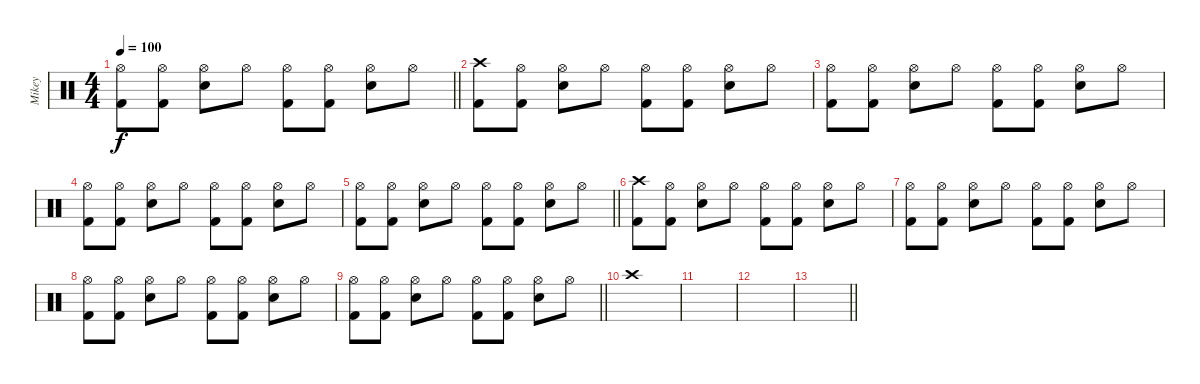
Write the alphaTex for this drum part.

\track ("Mikey" "Mikey") {instrument percussion}
\staff {score}
\articulation defaults
\ts (4 4)
\tempo 100
\clef neutral
\barLineRight lightlight
\ks c
("Hi-Hat (open)" "Kick (hit) 2").8{dy f} ("Hi-Hat (open)" "Kick (hit) 2").8 ("Hi-Hat (open)" "Snare (hit) 2").8 "Hi-Hat (open)".8 ("Hi-Hat (open)" "Kick (hit) 2").8 ("Hi-Hat (open)" "Kick (hit) 2").8 ("Hi-Hat (open)" "Snare (hit) 2").8 "Hi-Hat (open)".8 |
("Crash high (hit)" "Kick (hit) 2").8 ("Hi-Hat (open)" "Kick (hit) 2").8 ("Hi-Hat (open)" "Snare (hit) 2").8 "Hi-Hat (open)".8 ("Hi-Hat (open)" "Kick (hit) 2").8 ("Hi-Hat (open)" "Kick (hit) 2").8 ("Hi-Hat (open)" "Snare (hit) 2").8 "Hi-Hat (open)".8 |
("Hi-Hat (open)" "Kick (hit) 2").8 ("Hi-Hat (open)" "Kick (hit) 2").8 ("Hi-Hat (open)" "Snare (hit) 2").8 "Hi-Hat (open)".8 ("Hi-Hat (open)" "Kick (hit) 2").8 ("Hi-Hat (open)" "Kick (hit) 2").8 ("Hi-Hat (open)" "Snare (hit) 2").8 "Hi-Hat (open)".8 |
("Hi-Hat (open)" "Kick (hit) 2").8 ("Hi-Hat (open)" "Kick (hit) 2").8 ("Hi-Hat (open)" "Snare (hit) 2").8 "Hi-Hat (open)".8 ("Hi-Hat (open)" "Kick (hit) 2").8 ("Hi-Hat (open)" "Kick (hit) 2").8 ("Hi-Hat (open)" "Snare (hit) 2").8 "Hi-Hat (open)".8 |
\barLineRight lightlight
("Hi-Hat (open)" "Kick (hit) 2").8 ("Hi-Hat (open)" "Kick (hit) 2").8 ("Hi-Hat (open)" "Snare (hit) 2").8 "Hi-Hat (open)".8 ("Hi-Hat (open)" "Kick (hit) 2").8 ("Hi-Hat (open)" "Kick (hit) 2").8 ("Hi-Hat (open)" "Snare (hit) 2").8 "Hi-Hat (open)".8 |
("Crash high (hit)" "Kick (hit) 2").8 ("Hi-Hat (open)" "Kick (hit) 2").8 ("Hi-Hat (open)" "Snare (hit) 2").8 "Hi-Hat (open)".8 ("Hi-Hat (open)" "Kick (hit) 2").8 ("Hi-Hat (open)" "Kick (hit) 2").8 ("Hi-Hat (open)" "Snare (hit) 2").8 "Hi-Hat (open)".8 |
("Hi-Hat (open)" "Kick (hit) 2").8 ("Hi-Hat (open)" "Kick (hit) 2").8 ("Hi-Hat (open)" "Snare (hit) 2").8 "Hi-Hat (open)".8 ("Hi-Hat (open)" "Kick (hit) 2").8 ("Hi-Hat (open)" "Kick (hit) 2").8 ("Hi-Hat (open)" "Snare (hit) 2").8 "Hi-Hat (open)".8 |
("Hi-Hat (open)" "Kick (hit) 2").8 ("Hi-Hat (open)" "Kick (hit) 2").8 ("Hi-Hat (open)" "Snare (hit) 2").8 "Hi-Hat (open)".8 ("Hi-Hat (open)" "Kick (hit) 2").8 ("Hi-Hat (open)" "Kick (hit) 2").8 ("Hi-Hat (open)" "Snare (hit) 2").8 "Hi-Hat (open)".8 |
\barLineRight lightlight
("Hi-Hat (open)" "Kick (hit) 2").8 ("Hi-Hat (open)" "Kick (hit) 2").8 ("Hi-Hat (open)" "Snare (hit) 2").8 "Hi-Hat (open)".8 ("Hi-Hat (open)" "Kick (hit) 2").8 ("Hi-Hat (open)" "Kick (hit) 2").8 ("Hi-Hat (open)" "Snare (hit) 2").8 "Hi-Hat (open)".8 |
"Crash high (hit)".1 |
|
|
\barLineRight lightlight
